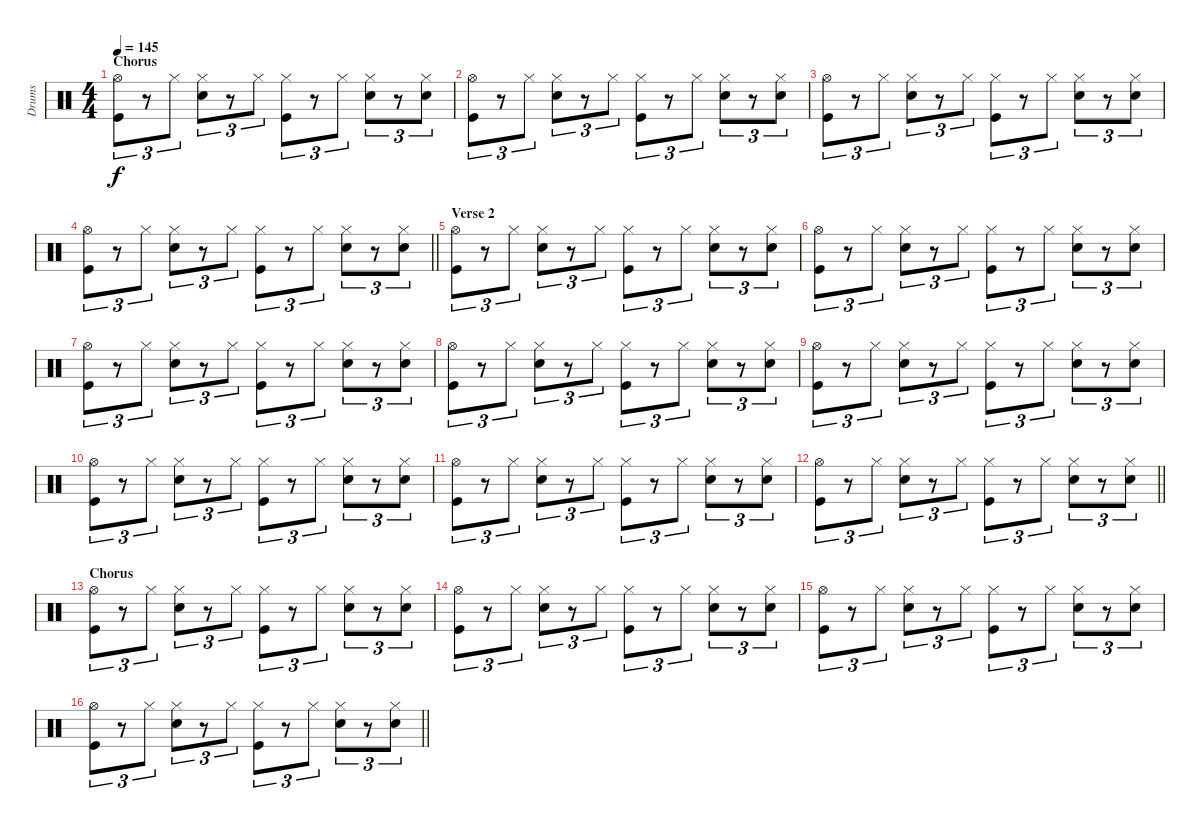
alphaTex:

\track ("Drums" "Drums") {instrument percussion}
\staff {score}
\articulation defaults
\ts (4 4)
\section ("" "Chorus")
\tempo 145
\clef neutral
\ks c
("Hi-Hat (open)" "Kick (hit)").8{tu (3 2) dy f} r.8{tu (3 2)} "Hi-Hat (closed)".8{tu (3 2)} ("Hi-Hat (closed)" "Snare (hit) 2").8{tu (3 2)} r.8{tu (3 2)} "Hi-Hat (closed)".8{tu (3 2)} ("Hi-Hat (closed)" "Kick (hit)").8{tu (3 2)} r.8{tu (3 2)} "Hi-Hat (closed)".8{tu (3 2)} ("Hi-Hat (closed)" "Snare (hit) 2").8{tu (3 2)} r.8{tu (3 2)} ("Hi-Hat (closed)" "Snare (hit) 2").8{tu (3 2)} |
("Hi-Hat (open)" "Kick (hit)").8{tu (3 2)} r.8{tu (3 2)} "Hi-Hat (closed)".8{tu (3 2)} ("Hi-Hat (closed)" "Snare (hit) 2").8{tu (3 2)} r.8{tu (3 2)} "Hi-Hat (closed)".8{tu (3 2)} ("Hi-Hat (closed)" "Kick (hit)").8{tu (3 2)} r.8{tu (3 2)} "Hi-Hat (closed)".8{tu (3 2)} ("Hi-Hat (closed)" "Snare (hit) 2").8{tu (3 2)} r.8{tu (3 2)} ("Hi-Hat (closed)" "Snare (hit) 2").8{tu (3 2)} |
("Hi-Hat (open)" "Kick (hit)").8{tu (3 2)} r.8{tu (3 2)} "Hi-Hat (closed)".8{tu (3 2)} ("Hi-Hat (closed)" "Snare (hit) 2").8{tu (3 2)} r.8{tu (3 2)} "Hi-Hat (closed)".8{tu (3 2)} ("Hi-Hat (closed)" "Kick (hit)").8{tu (3 2)} r.8{tu (3 2)} "Hi-Hat (closed)".8{tu (3 2)} ("Hi-Hat (closed)" "Snare (hit) 2").8{tu (3 2)} r.8{tu (3 2)} ("Hi-Hat (closed)" "Snare (hit) 2").8{tu (3 2)} |
\barLineRight lightlight
("Hi-Hat (open)" "Kick (hit)").8{tu (3 2)} r.8{tu (3 2)} "Hi-Hat (closed)".8{tu (3 2)} ("Hi-Hat (closed)" "Snare (hit) 2").8{tu (3 2)} r.8{tu (3 2)} "Hi-Hat (closed)".8{tu (3 2)} ("Hi-Hat (closed)" "Kick (hit)").8{tu (3 2)} r.8{tu (3 2)} "Hi-Hat (closed)".8{tu (3 2)} ("Hi-Hat (closed)" "Snare (hit) 2").8{tu (3 2)} r.8{tu (3 2)} ("Hi-Hat (closed)" "Snare (hit) 2").8{tu (3 2)} |
\section ("" "Verse 2")
("Hi-Hat (open)" "Kick (hit)").8{tu (3 2)} r.8{tu (3 2)} "Hi-Hat (closed)".8{tu (3 2)} ("Hi-Hat (closed)" "Snare (hit) 2").8{tu (3 2)} r.8{tu (3 2)} "Hi-Hat (closed)".8{tu (3 2)} ("Hi-Hat (closed)" "Kick (hit)").8{tu (3 2)} r.8{tu (3 2)} "Hi-Hat (closed)".8{tu (3 2)} ("Hi-Hat (closed)" "Snare (hit) 2").8{tu (3 2)} r.8{tu (3 2)} ("Hi-Hat (closed)" "Snare (hit) 2").8{tu (3 2)} |
("Hi-Hat (open)" "Kick (hit)").8{tu (3 2)} r.8{tu (3 2)} "Hi-Hat (closed)".8{tu (3 2)} ("Hi-Hat (closed)" "Snare (hit) 2").8{tu (3 2)} r.8{tu (3 2)} "Hi-Hat (closed)".8{tu (3 2)} ("Hi-Hat (closed)" "Kick (hit)").8{tu (3 2)} r.8{tu (3 2)} "Hi-Hat (closed)".8{tu (3 2)} ("Hi-Hat (closed)" "Snare (hit) 2").8{tu (3 2)} r.8{tu (3 2)} ("Hi-Hat (closed)" "Snare (hit) 2").8{tu (3 2)} |
("Hi-Hat (open)" "Kick (hit)").8{tu (3 2)} r.8{tu (3 2)} "Hi-Hat (closed)".8{tu (3 2)} ("Hi-Hat (closed)" "Snare (hit) 2").8{tu (3 2)} r.8{tu (3 2)} "Hi-Hat (closed)".8{tu (3 2)} ("Hi-Hat (closed)" "Kick (hit)").8{tu (3 2)} r.8{tu (3 2)} "Hi-Hat (closed)".8{tu (3 2)} ("Hi-Hat (closed)" "Snare (hit) 2").8{tu (3 2)} r.8{tu (3 2)} ("Hi-Hat (closed)" "Snare (hit) 2").8{tu (3 2)} |
("Hi-Hat (open)" "Kick (hit)").8{tu (3 2)} r.8{tu (3 2)} "Hi-Hat (closed)".8{tu (3 2)} ("Hi-Hat (closed)" "Snare (hit) 2").8{tu (3 2)} r.8{tu (3 2)} "Hi-Hat (closed)".8{tu (3 2)} ("Hi-Hat (closed)" "Kick (hit)").8{tu (3 2)} r.8{tu (3 2)} "Hi-Hat (closed)".8{tu (3 2)} ("Hi-Hat (closed)" "Snare (hit) 2").8{tu (3 2)} r.8{tu (3 2)} ("Hi-Hat (closed)" "Snare (hit) 2").8{tu (3 2)} |
("Hi-Hat (open)" "Kick (hit)").8{tu (3 2)} r.8{tu (3 2)} "Hi-Hat (closed)".8{tu (3 2)} ("Hi-Hat (closed)" "Snare (hit) 2").8{tu (3 2)} r.8{tu (3 2)} "Hi-Hat (closed)".8{tu (3 2)} ("Hi-Hat (closed)" "Kick (hit)").8{tu (3 2)} r.8{tu (3 2)} "Hi-Hat (closed)".8{tu (3 2)} ("Hi-Hat (closed)" "Snare (hit) 2").8{tu (3 2)} r.8{tu (3 2)} ("Hi-Hat (closed)" "Snare (hit) 2").8{tu (3 2)} |
("Hi-Hat (open)" "Kick (hit)").8{tu (3 2)} r.8{tu (3 2)} "Hi-Hat (closed)".8{tu (3 2)} ("Hi-Hat (closed)" "Snare (hit) 2").8{tu (3 2)} r.8{tu (3 2)} "Hi-Hat (closed)".8{tu (3 2)} ("Hi-Hat (closed)" "Kick (hit)").8{tu (3 2)} r.8{tu (3 2)} "Hi-Hat (closed)".8{tu (3 2)} ("Hi-Hat (closed)" "Snare (hit) 2").8{tu (3 2)} r.8{tu (3 2)} ("Hi-Hat (closed)" "Snare (hit) 2").8{tu (3 2)} |
("Hi-Hat (open)" "Kick (hit)").8{tu (3 2)} r.8{tu (3 2)} "Hi-Hat (closed)".8{tu (3 2)} ("Hi-Hat (closed)" "Snare (hit) 2").8{tu (3 2)} r.8{tu (3 2)} "Hi-Hat (closed)".8{tu (3 2)} ("Hi-Hat (closed)" "Kick (hit)").8{tu (3 2)} r.8{tu (3 2)} "Hi-Hat (closed)".8{tu (3 2)} ("Hi-Hat (closed)" "Snare (hit) 2").8{tu (3 2)} r.8{tu (3 2)} ("Hi-Hat (closed)" "Snare (hit) 2").8{tu (3 2)} |
\barLineRight lightlight
("Hi-Hat (open)" "Kick (hit)").8{tu (3 2)} r.8{tu (3 2)} "Hi-Hat (closed)".8{tu (3 2)} ("Hi-Hat (closed)" "Snare (hit) 2").8{tu (3 2)} r.8{tu (3 2)} "Hi-Hat (closed)".8{tu (3 2)} ("Hi-Hat (closed)" "Kick (hit)").8{tu (3 2)} r.8{tu (3 2)} "Hi-Hat (closed)".8{tu (3 2)} ("Hi-Hat (closed)" "Snare (hit) 2").8{tu (3 2)} r.8{tu (3 2)} ("Hi-Hat (closed)" "Snare (hit) 2").8{tu (3 2)} |
\section ("" "Chorus")
("Hi-Hat (open)" "Kick (hit)").8{tu (3 2)} r.8{tu (3 2)} "Hi-Hat (closed)".8{tu (3 2)} ("Hi-Hat (closed)" "Snare (hit) 2").8{tu (3 2)} r.8{tu (3 2)} "Hi-Hat (closed)".8{tu (3 2)} ("Hi-Hat (closed)" "Kick (hit)").8{tu (3 2)} r.8{tu (3 2)} "Hi-Hat (closed)".8{tu (3 2)} ("Hi-Hat (closed)" "Snare (hit) 2").8{tu (3 2)} r.8{tu (3 2)} ("Hi-Hat (closed)" "Snare (hit) 2").8{tu (3 2)} |
("Hi-Hat (open)" "Kick (hit)").8{tu (3 2)} r.8{tu (3 2)} "Hi-Hat (closed)".8{tu (3 2)} ("Hi-Hat (closed)" "Snare (hit) 2").8{tu (3 2)} r.8{tu (3 2)} "Hi-Hat (closed)".8{tu (3 2)} ("Hi-Hat (closed)" "Kick (hit)").8{tu (3 2)} r.8{tu (3 2)} "Hi-Hat (closed)".8{tu (3 2)} ("Hi-Hat (closed)" "Snare (hit) 2").8{tu (3 2)} r.8{tu (3 2)} ("Hi-Hat (closed)" "Snare (hit) 2").8{tu (3 2)} |
("Hi-Hat (open)" "Kick (hit)").8{tu (3 2)} r.8{tu (3 2)} "Hi-Hat (closed)".8{tu (3 2)} ("Hi-Hat (closed)" "Snare (hit) 2").8{tu (3 2)} r.8{tu (3 2)} "Hi-Hat (closed)".8{tu (3 2)} ("Hi-Hat (closed)" "Kick (hit)").8{tu (3 2)} r.8{tu (3 2)} "Hi-Hat (closed)".8{tu (3 2)} ("Hi-Hat (closed)" "Snare (hit) 2").8{tu (3 2)} r.8{tu (3 2)} ("Hi-Hat (closed)" "Snare (hit) 2").8{tu (3 2)} |
\barLineRight lightlight
("Hi-Hat (open)" "Kick (hit)").8{tu (3 2)} r.8{tu (3 2)} "Hi-Hat (closed)".8{tu (3 2)} ("Hi-Hat (closed)" "Snare (hit) 2").8{tu (3 2)} r.8{tu (3 2)} "Hi-Hat (closed)".8{tu (3 2)} ("Hi-Hat (closed)" "Kick (hit)").8{tu (3 2)} r.8{tu (3 2)} "Hi-Hat (closed)".8{tu (3 2)} ("Hi-Hat (closed)" "Snare (hit) 2").8{tu (3 2)} r.8{tu (3 2)} ("Hi-Hat (closed)" "Snare (hit) 2").8{tu (3 2)}
